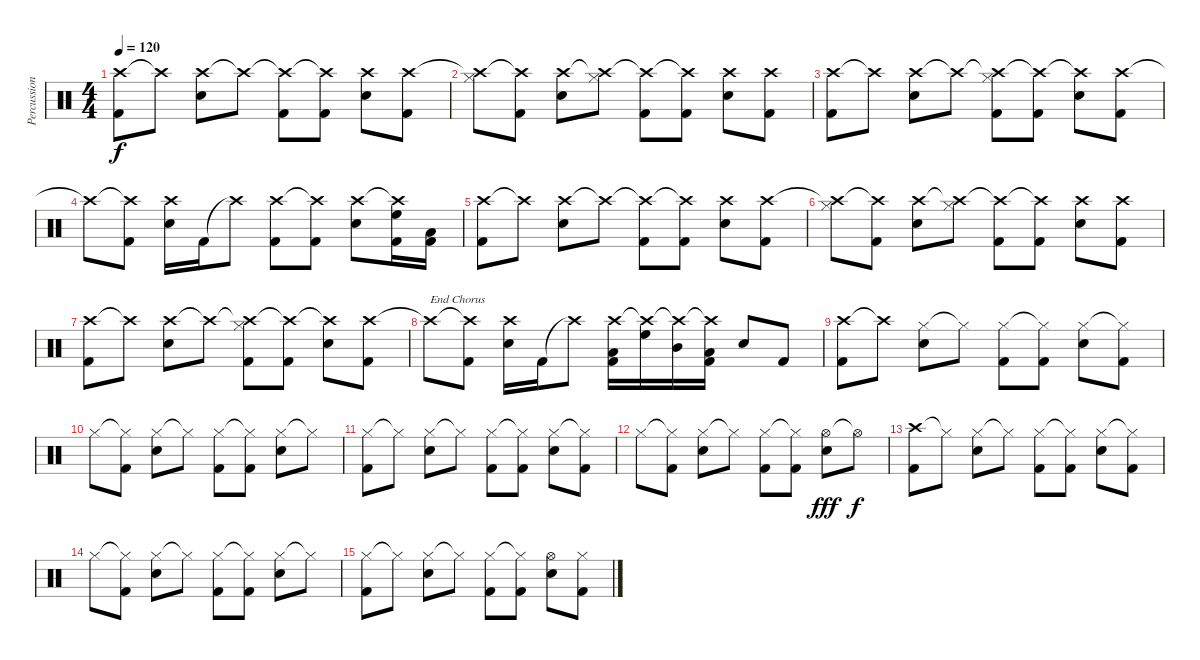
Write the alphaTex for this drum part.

\track ("Percussion" "Percussion") {instrument percussion}
\staff {score}
\articulation defaults
\ts (4 4)
\tempo 120
\clef neutral
\ks c
("Crash high (hit)" "Kick (hit) 2").8{dy f} "Crash high (hit)"{t}.8 ("Crash high (hit)" "Electric Snare (hit)").8 "Crash high (hit)"{t}.8 ("Crash high (hit)"{t} "Kick (hit) 2").8 ("Crash high (hit)"{t} "Kick (hit) 2").8 ("Crash high (hit)" "Electric Snare (hit)").8 ("Crash high (hit)" "Kick (hit) 2").8 |
("Crash high (hit)"{t} "Hi-Hat (closed)").8 ("Crash high (hit)"{t} "Kick (hit) 2").8 ("Crash high (hit)" "Electric Snare (hit)").8 ("Crash high (hit)"{t} "Hi-Hat (closed)").8 ("Crash high (hit)"{t} "Kick (hit) 2").8 ("Crash high (hit)"{t} "Kick (hit) 2").8 ("Crash high (hit)" "Electric Snare (hit)").8 ("Crash high (hit)" "Kick (hit) 2").8 |
("Crash high (hit)" "Kick (hit) 2").8 "Crash high (hit)"{t}.8 ("Crash high (hit)" "Electric Snare (hit)").8 "Crash high (hit)"{t}.8 ("Crash high (hit)"{t} "Hi-Hat (closed)" "Kick (hit) 2").8 ("Crash high (hit)"{t} "Kick (hit) 2").8 ("Crash high (hit)"{t} "Electric Snare (hit)").8 ("Crash high (hit)" "Kick (hit) 2").8 |
"Crash high (hit)"{t}.8 ("Crash high (hit)"{t} "Kick (hit) 2").8 ("Crash high (hit)" "Electric Snare (hit)").16 "Kick (hit) 2".16 "Crash high (hit)"{t}.8 ("Crash high (hit)" "Kick (hit) 2").8 ("Crash high (hit)"{t} "Kick (hit) 2").8 ("Crash high (hit)" "Electric Snare (hit)").8 ("Crash high (hit)"{t} "High Floor Tom (hit)" "Kick (hit) 2").16 ("Low Floor Tom (hit)" "Kick (hit) 2").16 |
("Crash high (hit)" "Kick (hit) 2").8 "Crash high (hit)"{t}.8 ("Crash high (hit)" "Electric Snare (hit)").8 "Crash high (hit)"{t}.8 ("Crash high (hit)"{t} "Kick (hit) 2").8 ("Crash high (hit)"{t} "Kick (hit) 2").8 ("Crash high (hit)" "Electric Snare (hit)").8 ("Crash high (hit)" "Kick (hit) 2").8 |
("Crash high (hit)"{t} "Hi-Hat (closed)").8 ("Crash high (hit)"{t} "Kick (hit) 2").8 ("Crash high (hit)" "Electric Snare (hit)").8 ("Crash high (hit)"{t} "Hi-Hat (closed)").8 ("Crash high (hit)"{t} "Kick (hit) 2").8 ("Crash high (hit)"{t} "Kick (hit) 2").8 ("Crash high (hit)" "Electric Snare (hit)").8 ("Crash high (hit)" "Kick (hit) 2").8 |
("Crash high (hit)" "Kick (hit) 2").8 "Crash high (hit)"{t}.8 ("Crash high (hit)" "Electric Snare (hit)").8 "Crash high (hit)"{t}.8 ("Crash high (hit)"{t} "Hi-Hat (closed)" "Kick (hit) 2").8 ("Crash high (hit)"{t} "Kick (hit) 2").8 ("Crash high (hit)"{t} "Electric Snare (hit)").8 ("Crash high (hit)" "Kick (hit) 2").8 |
"Crash high (hit)"{t}.8{txt "End Chorus"} ("Crash high (hit)"{t} "Kick (hit) 2").8 ("Crash high (hit)" "Electric Snare (hit)").16 "Kick (hit) 2".16 "Crash high (hit)"{t}.8 ("Crash high (hit)" "Low Floor Tom (hit)" "Kick (hit) 2").16 ("Crash high (hit)"{t} "High Floor Tom (hit)").16 ("Crash high (hit)"{t} "Mid Tom (hit)").16 ("Crash high (hit)"{t} "Low Floor Tom (hit)" "Kick (hit) 2").16 "Electric Snare (hit)".8 "Kick (hit) 2".8 |
("Crash high (hit)" "Kick (hit) 2").8 "Crash high (hit)"{t}.8 ("Hi-Hat (closed)" "Electric Snare (hit)").8 "Hi-Hat (closed)"{t}.8 ("Hi-Hat (closed)" "Kick (hit) 2").8 ("Hi-Hat (closed)"{t} "Kick (hit) 2").8 ("Hi-Hat (closed)" "Electric Snare (hit)").8 ("Hi-Hat (closed)"{t} "Kick (hit) 2").8 |
"Hi-Hat (closed)".8 ("Hi-Hat (closed)"{t} "Kick (hit) 2").8 ("Hi-Hat (closed)" "Electric Snare (hit)").8 "Hi-Hat (closed)"{t}.8 ("Hi-Hat (closed)" "Kick (hit) 2").8 ("Hi-Hat (closed)"{t} "Kick (hit) 2").8 ("Hi-Hat (closed)" "Electric Snare (hit)").8 "Hi-Hat (closed)"{t}.8 |
("Hi-Hat (closed)" "Kick (hit) 2").8 "Hi-Hat (closed)"{t}.8 ("Hi-Hat (closed)" "Electric Snare (hit)").8 "Hi-Hat (closed)"{t}.8 ("Hi-Hat (closed)" "Kick (hit) 2").8 ("Hi-Hat (closed)"{t} "Kick (hit) 2").8 ("Hi-Hat (closed)" "Electric Snare (hit)").8 ("Hi-Hat (closed)"{t} "Kick (hit) 2").8 |
"Hi-Hat (closed)".8 ("Hi-Hat (closed)"{t} "Kick (hit) 2").8 ("Hi-Hat (closed)" "Electric Snare (hit)").8 "Hi-Hat (closed)"{t}.8 ("Hi-Hat (closed)" "Kick (hit) 2").8 ("Hi-Hat (closed)"{t} "Kick (hit) 2").8 ("Hi-Hat (open)" "Electric Snare (hit)").8{dy fff} "Hi-Hat (open)"{t}.8{dy f} |
("Crash high (hit)" "Kick (hit) 2").8 "Hi-Hat (closed)"{t}.8 ("Hi-Hat (closed)" "Electric Snare (hit)").8 "Hi-Hat (closed)"{t}.8 ("Hi-Hat (closed)" "Kick (hit) 2").8 ("Hi-Hat (closed)"{t} "Kick (hit) 2").8 ("Hi-Hat (closed)" "Electric Snare (hit)").8 ("Hi-Hat (closed)"{t} "Kick (hit) 2").8 |
"Hi-Hat (closed)".8 ("Hi-Hat (closed)"{t} "Kick (hit) 2").8 ("Hi-Hat (closed)" "Electric Snare (hit)").8 "Hi-Hat (closed)"{t}.8 ("Hi-Hat (closed)" "Kick (hit) 2").8 ("Hi-Hat (closed)"{t} "Kick (hit) 2").8 ("Hi-Hat (closed)" "Electric Snare (hit)").8 "Hi-Hat (closed)"{t}.8 |
("Hi-Hat (closed)" "Kick (hit) 2").8 "Hi-Hat (closed)"{t}.8 ("Hi-Hat (closed)" "Electric Snare (hit)").8 "Hi-Hat (closed)"{t}.8 ("Hi-Hat (closed)" "Kick (hit) 2").8 ("Hi-Hat (closed)"{t} "Kick (hit) 2").8 ("Hi-Hat (open)" "Electric Snare (hit)").8 ("Hi-Hat (closed)" "Kick (hit) 2").8
